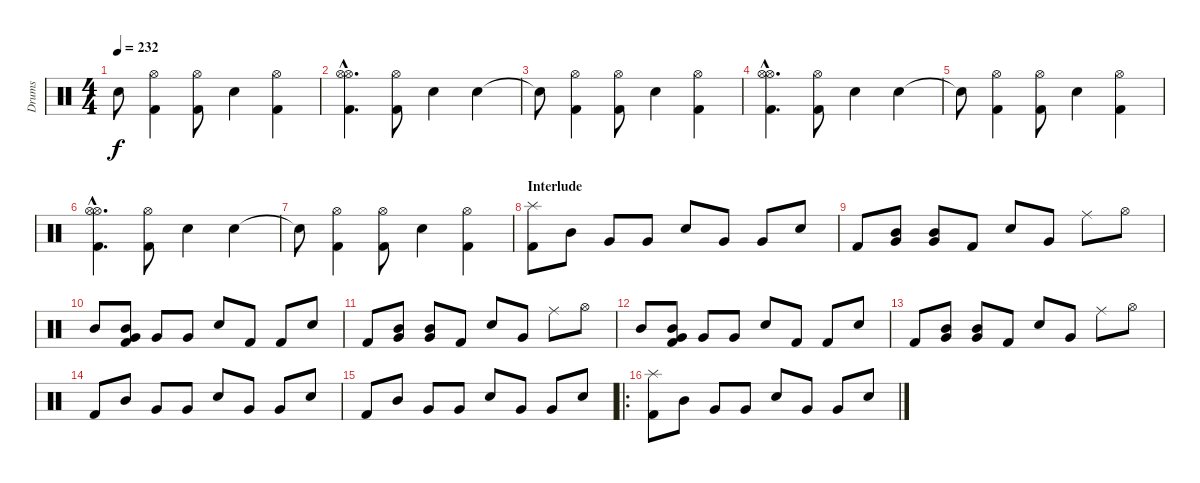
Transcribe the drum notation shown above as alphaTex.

\track ("Drums" "Drums") {instrument percussion}
\staff {score}
\articulation defaults
\ts (4 4)
\tempo 232
\clef neutral
\ks c "Snare (hit)"{t}.8{dy f}
("Hi-Hat (open)" "Kick (hit) 2").4 ("Hi-Hat (open)" "Kick (hit) 2").8 "Electric Snare (hit)".4 ("Hi-Hat (open)" "Kick (hit) 2").4 |
("Hi-Hat (open)"{hac} "Hi-Hat (open)"{hac} "Kick (hit) 2"{hac}).4{d} ("Hi-Hat (open)" "Kick (hit) 2").8 "Electric Snare (hit)".4 "Electric Snare (hit)".4 |
"Snare (hit)"{t}.8 ("Hi-Hat (open)" "Kick (hit) 2").4 ("Hi-Hat (open)" "Kick (hit) 2").8 "Electric Snare (hit)".4 ("Hi-Hat (open)" "Kick (hit) 2").4 |
("Hi-Hat (open)"{hac} "Hi-Hat (open)"{hac} "Kick (hit) 2"{hac}).4{d} ("Hi-Hat (open)" "Kick (hit) 2").8 "Electric Snare (hit)".4 "Electric Snare (hit)".4 |
"Snare (hit)"{t}.8 ("Hi-Hat (open)" "Kick (hit) 2").4 ("Hi-Hat (open)" "Kick (hit) 2").8 "Electric Snare (hit)".4 ("Hi-Hat (open)" "Kick (hit) 2").4 |
("Hi-Hat (open)"{hac} "Hi-Hat (open)"{hac} "Kick (hit) 2"{hac}).4{d} ("Hi-Hat (open)" "Kick (hit) 2").8 "Electric Snare (hit)".4 "Electric Snare (hit)".4 |
"Snare (hit)"{t}.8 ("Hi-Hat (open)" "Kick (hit) 2").4 ("Hi-Hat (open)" "Kick (hit) 2").8 "Electric Snare (hit)".4 ("Hi-Hat (open)" "Kick (hit) 2").4 |
\section ("" "Interlude")
("Splash (hit)" "Kick (hit) 2").8 "Mid Tom (hit)".8 "Very Low Tom (hit)".8 "Very Low Tom (hit)".8 "Electric Snare (hit)".8 "Very Low Tom (hit)".8 "Very Low Tom (hit)".8 "Electric Snare (hit)".8 |
"Kick (hit) 2".8 ("Mid Tom (hit)" "Very Low Tom (hit)").8 ("Mid Tom (hit)" "Very Low Tom (hit)").8 "Kick (hit) 2".8 "Electric Snare (hit)".8 "Very Low Tom (hit)".8 "Ride (middle)".8 "Hi-Hat (open)".8 |
"Mid Tom (hit)".8 ("Mid Tom (hit)" "Very Low Tom (hit)" "Kick (hit) 2").8 "Very Low Tom (hit)".8 "Very Low Tom (hit)".8 "Electric Snare (hit)".8 "Kick (hit) 2".8 "Kick (hit) 2".8 "Electric Snare (hit)".8 |
"Kick (hit) 2".8 ("Mid Tom (hit)" "Very Low Tom (hit)").8 ("Mid Tom (hit)" "Very Low Tom (hit)").8 "Kick (hit) 2".8 "Electric Snare (hit)".8 "Very Low Tom (hit)".8 "Ride (middle)".8 "Hi-Hat (open)".8 |
"Mid Tom (hit)".8 ("Mid Tom (hit)" "Very Low Tom (hit)" "Kick (hit) 2").8 "Very Low Tom (hit)".8 "Very Low Tom (hit)".8 "Electric Snare (hit)".8 "Kick (hit) 2".8 "Kick (hit) 2".8 "Electric Snare (hit)".8 |
"Kick (hit) 2".8 ("Mid Tom (hit)" "Very Low Tom (hit)").8 ("Mid Tom (hit)" "Very Low Tom (hit)").8 "Kick (hit) 2".8 "Electric Snare (hit)".8 "Very Low Tom (hit)".8 "Ride (middle)".8 "Hi-Hat (open)".8 |
"Kick (hit) 2".8 "Mid Tom (hit)".8 "Very Low Tom (hit)".8 "Very Low Tom (hit)".8 "Electric Snare (hit)".8 "Very Low Tom (hit)".8 "Very Low Tom (hit)".8 "Electric Snare (hit)".8 |
"Kick (hit) 2".8 "Mid Tom (hit)".8 "Very Low Tom (hit)".8 "Very Low Tom (hit)".8 "Electric Snare (hit)".8 "Very Low Tom (hit)".8 "Very Low Tom (hit)".8 "Electric Snare (hit)".8 |
\ro
("Splash (hit)" "Kick (hit) 2").8 "Mid Tom (hit)".8 "Very Low Tom (hit)".8 "Very Low Tom (hit)".8 "Electric Snare (hit)".8 "Very Low Tom (hit)".8 "Very Low Tom (hit)".8 "Electric Snare (hit)".8
